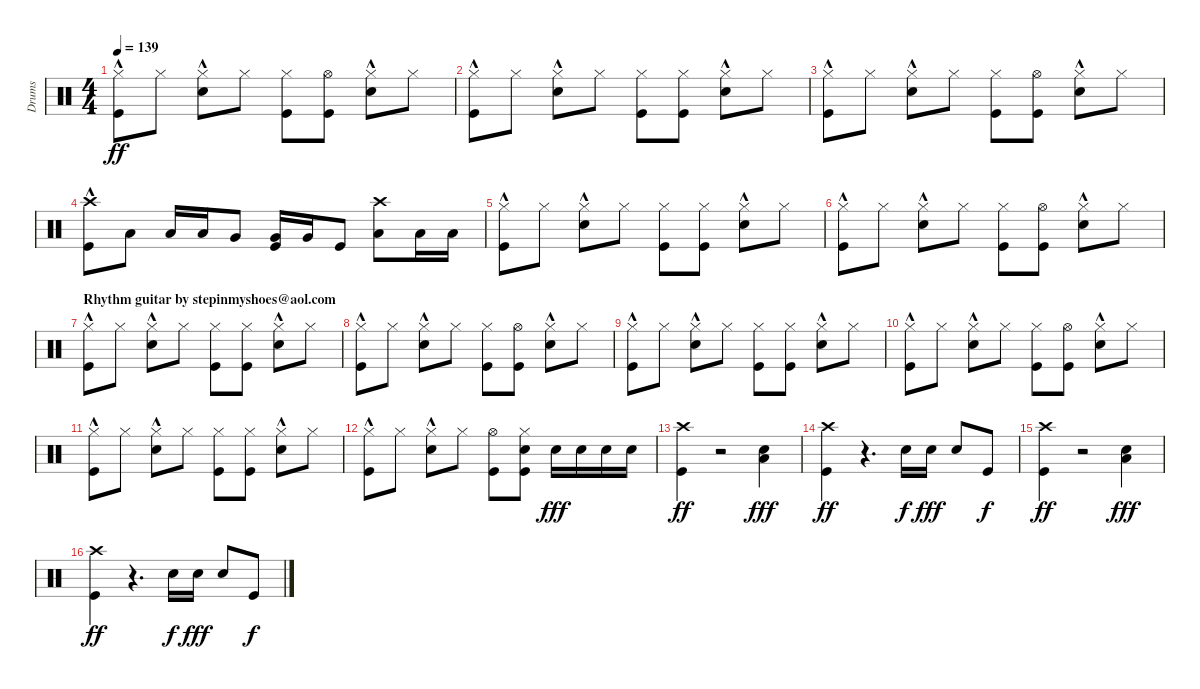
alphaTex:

\track ("Drums" "Drums") {instrument percussion}
\staff {score}
\articulation defaults
\ts (4 4)
\tempo 139
\clef neutral
\ks c
("Hi-Hat (closed)" "Kick (hit)"{hac}).8{dy ff} "Hi-Hat (closed)".8 ("Hi-Hat (closed)" "Snare (hit) 2"{hac}).8 "Hi-Hat (closed)".8 ("Hi-Hat (closed)" "Kick (hit)").8 ("Hi-Hat (open)" "Kick (hit)").8 ("Hi-Hat (closed)" "Snare (hit) 2"{hac}).8 "Hi-Hat (closed)".8 |
("Hi-Hat (closed)" "Kick (hit)"{hac}).8 "Hi-Hat (closed)".8 ("Hi-Hat (closed)" "Snare (hit) 2"{hac}).8 "Hi-Hat (closed)".8 ("Hi-Hat (closed)" "Kick (hit)").8 ("Hi-Hat (closed)" "Kick (hit)").8 ("Hi-Hat (closed)" "Snare (hit) 2"{hac}).8 "Hi-Hat (closed)".8 |
("Hi-Hat (closed)" "Kick (hit)"{hac}).8 "Hi-Hat (closed)".8 ("Hi-Hat (closed)" "Snare (hit) 2"{hac}).8 "Hi-Hat (closed)".8 ("Hi-Hat (closed)" "Kick (hit)").8 ("Hi-Hat (open)" "Kick (hit)").8 ("Hi-Hat (closed)" "Snare (hit) 2"{hac}).8 "Hi-Hat (closed)".8 |
("Crash high (hit)" "Kick (hit)"{hac}).8 "Low Tom (hit)".8 "Low Tom (hit)".16 "Low Tom (hit)".16 "Very Low Tom (hit)".8 ("Very Low Tom (hit)" "Kick (hit)").16 "Very Low Tom (hit)".16 "Kick (hit)".8 ("Crash high (hit)" "Low Floor Tom (hit)").8 "Low Floor Tom (hit)".16 "Low Floor Tom (hit)".16 |
("Hi-Hat (closed)" "Kick (hit)"{hac}).8 "Hi-Hat (closed)".8 ("Hi-Hat (closed)" "Snare (hit) 2"{hac}).8 "Hi-Hat (closed)".8 ("Hi-Hat (closed)" "Kick (hit)").8 ("Hi-Hat (closed)" "Kick (hit)").8 ("Hi-Hat (closed)" "Snare (hit) 2"{hac}).8 "Hi-Hat (closed)".8 |
("Hi-Hat (closed)" "Kick (hit)"{hac}).8 "Hi-Hat (closed)".8 ("Hi-Hat (closed)" "Snare (hit) 2"{hac}).8 "Hi-Hat (closed)".8 ("Hi-Hat (closed)" "Kick (hit)").8 ("Hi-Hat (open)" "Kick (hit)").8 ("Hi-Hat (closed)" "Snare (hit) 2"{hac}).8 "Hi-Hat (closed)".8 |
\section ("" "Rhythm guitar by stepinmyshoes@aol.com")
("Hi-Hat (closed)" "Kick (hit)"{hac}).8 "Hi-Hat (closed)".8 ("Hi-Hat (closed)" "Snare (hit) 2"{hac}).8 "Hi-Hat (closed)".8 ("Hi-Hat (closed)" "Kick (hit)").8 ("Hi-Hat (closed)" "Kick (hit)").8 ("Hi-Hat (closed)" "Snare (hit) 2"{hac}).8 "Hi-Hat (closed)".8 |
("Hi-Hat (closed)" "Kick (hit)"{hac}).8 "Hi-Hat (closed)".8 ("Hi-Hat (closed)" "Snare (hit) 2"{hac}).8 "Hi-Hat (closed)".8 ("Hi-Hat (closed)" "Kick (hit)").8 ("Hi-Hat (open)" "Kick (hit)").8 ("Hi-Hat (closed)" "Snare (hit) 2"{hac}).8 "Hi-Hat (closed)".8 |
("Hi-Hat (closed)" "Kick (hit)"{hac}).8 "Hi-Hat (closed)".8 ("Hi-Hat (closed)" "Snare (hit) 2"{hac}).8 "Hi-Hat (closed)".8 ("Hi-Hat (closed)" "Kick (hit)").8 ("Hi-Hat (closed)" "Kick (hit)").8 ("Hi-Hat (closed)" "Snare (hit) 2"{hac}).8 "Hi-Hat (closed)".8 |
("Hi-Hat (closed)" "Kick (hit)"{hac}).8 "Hi-Hat (closed)".8 ("Hi-Hat (closed)" "Snare (hit) 2"{hac}).8 "Hi-Hat (closed)".8 ("Hi-Hat (closed)" "Kick (hit)").8 ("Hi-Hat (open)" "Kick (hit)").8 ("Hi-Hat (closed)" "Snare (hit) 2"{hac}).8 "Hi-Hat (closed)".8 |
("Hi-Hat (closed)" "Kick (hit)"{hac}).8 "Hi-Hat (closed)".8 ("Hi-Hat (closed)" "Snare (hit) 2"{hac}).8 "Hi-Hat (closed)".8 ("Hi-Hat (closed)" "Kick (hit)").8 ("Hi-Hat (closed)" "Kick (hit)").8 ("Hi-Hat (closed)" "Snare (hit) 2"{hac}).8 "Hi-Hat (closed)".8 |
("Hi-Hat (closed)" "Kick (hit)"{hac}).8 "Hi-Hat (closed)".8 ("Hi-Hat (closed)" "Snare (hit) 2"{hac}).8 "Hi-Hat (closed)".8 ("Hi-Hat (open)" "Kick (hit)").8 ("Hi-Hat (closed)" "Snare (hit) 2" "Kick (hit)").8 "Snare (hit) 2".16{dy fff} "Snare (hit) 2".16 "Snare (hit) 2".16 "Snare (hit) 2".16 |
("Crash high (hit)" "Kick (hit)").4{dy ff} r.2 ("Low Floor Tom (hit)" "Snare (hit) 2").4{dy fff} |
("Crash high (hit)" "Kick (hit)").4{dy ff} r.4{d} "Snare (hit) 2".16{dy f} "Snare (hit) 2".16{dy fff} "Snare (hit) 2".8 "Kick (hit)".8{dy f} |
("Crash high (hit)" "Kick (hit)").4{dy ff} r.2 ("Low Floor Tom (hit)" "Snare (hit) 2").4{dy fff} |
("Crash high (hit)" "Kick (hit)").4{dy ff} r.4{d} "Snare (hit) 2".16{dy f} "Snare (hit) 2".16{dy fff} "Snare (hit) 2".8 "Kick (hit)".8{dy f}
